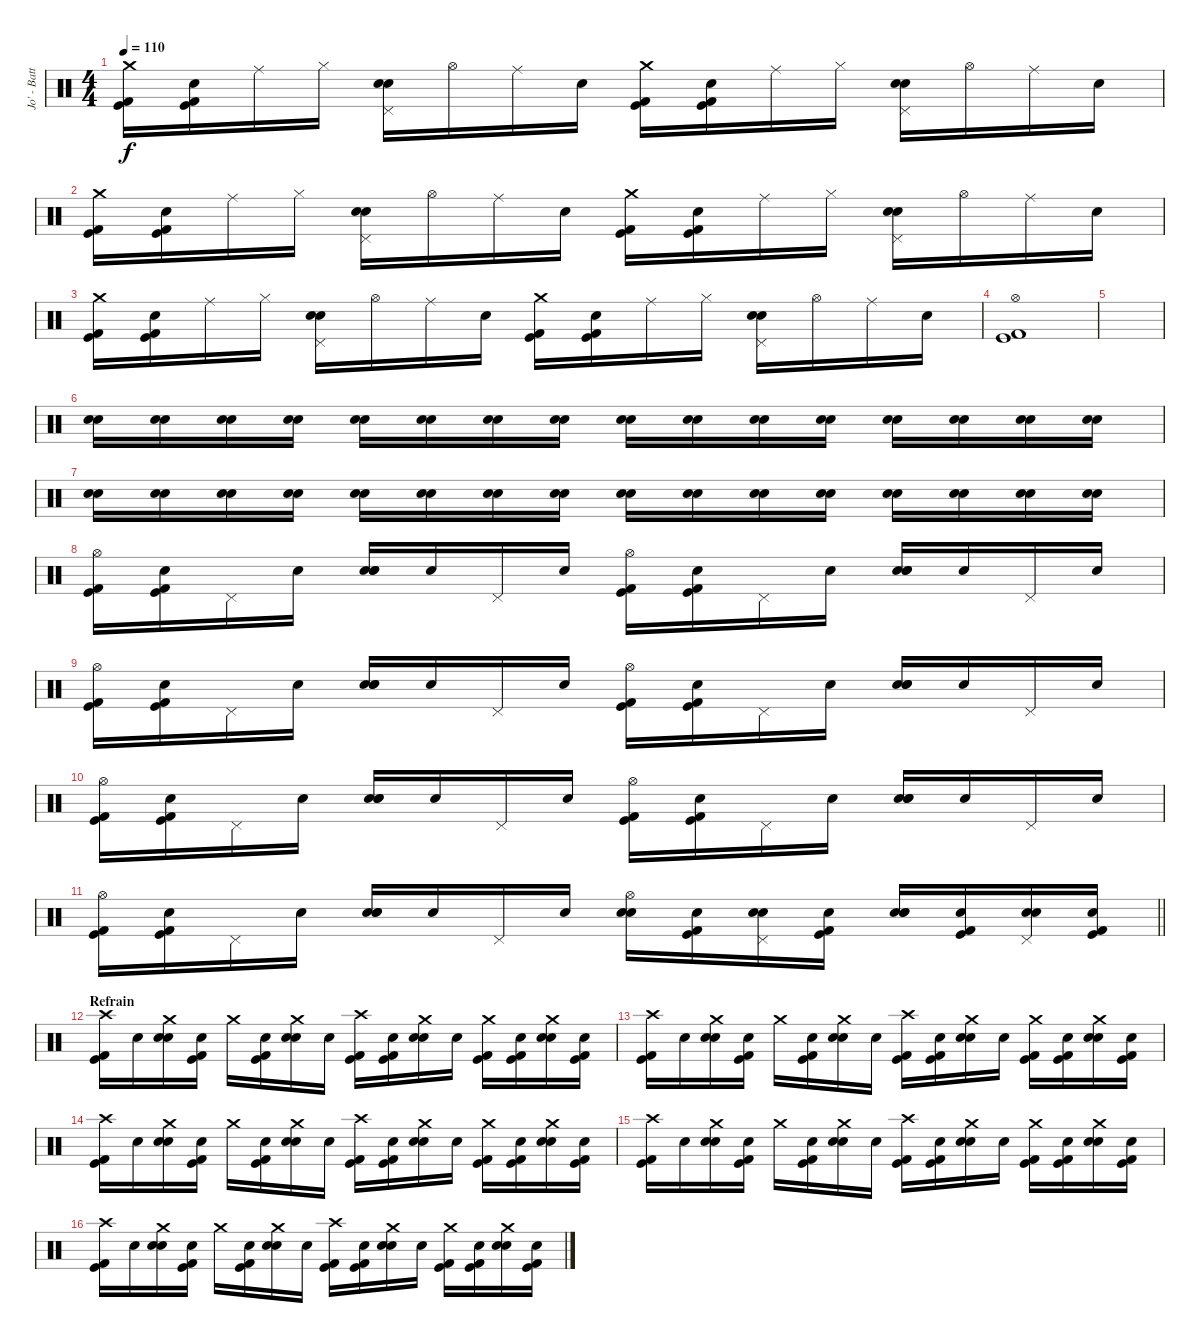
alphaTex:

\track ("Jo' - Batterie" "Jo' - Batt") {instrument percussion}
\staff {score}
\articulation defaults
\ts (4 4)
\tempo 110
\clef neutral
\ks c
("Crash medium (hit)" "Kick (hit)" "Kick (hit) 2").16{dy f} ("Snare (hit)" "Kick (hit)" "Kick (hit) 2").16 "Ride (middle)".16 "Hi-Hat (closed)".16 ("Pedal Hi-Hat (hit)" "Electric Snare (hit)" "Snare (hit) 2").16 "Hi-Hat (open)".16 "Ride (middle)".16 "Snare (hit)".16 ("Crash medium (hit)" "Kick (hit)" "Kick (hit) 2").16 ("Snare (hit)" "Kick (hit)" "Kick (hit) 2").16 "Ride (middle)".16 "Hi-Hat (closed)".16 ("Pedal Hi-Hat (hit)" "Electric Snare (hit)" "Snare (hit) 2").16 "Hi-Hat (open)".16 "Ride (middle)".16 "Snare (hit)".16 |
("Crash medium (hit)" "Kick (hit)" "Kick (hit) 2").16 ("Snare (hit)" "Kick (hit)" "Kick (hit) 2").16 "Ride (middle)".16 "Hi-Hat (closed)".16 ("Pedal Hi-Hat (hit)" "Electric Snare (hit)" "Snare (hit) 2").16 "Hi-Hat (open)".16 "Ride (middle)".16 "Snare (hit)".16 ("Crash medium (hit)" "Kick (hit)" "Kick (hit) 2").16 ("Snare (hit)" "Kick (hit)" "Kick (hit) 2").16 "Ride (middle)".16 "Hi-Hat (closed)".16 ("Pedal Hi-Hat (hit)" "Electric Snare (hit)" "Snare (hit) 2").16 "Hi-Hat (open)".16 "Ride (middle)".16 "Snare (hit)".16 |
("Crash medium (hit)" "Kick (hit)" "Kick (hit) 2").16 ("Snare (hit)" "Kick (hit)" "Kick (hit) 2").16 "Ride (middle)".16 "Hi-Hat (closed)".16 ("Pedal Hi-Hat (hit)" "Electric Snare (hit)" "Snare (hit) 2").16 "Hi-Hat (open)".16 "Ride (middle)".16 "Snare (hit)".16 ("Crash medium (hit)" "Kick (hit)" "Kick (hit) 2").16 ("Snare (hit)" "Kick (hit)" "Kick (hit) 2").16 "Ride (middle)".16 "Hi-Hat (closed)".16 ("Pedal Hi-Hat (hit)" "Electric Snare (hit)" "Snare (hit) 2").16 "Hi-Hat (open)".16 "Ride (middle)".16 "Snare (hit)".16 |
("Hi-Hat (open)" "Kick (hit)" "Kick (hit) 2").1 |
|
("Electric Snare (hit)" "Snare (hit) 2").16{volume 13} ("Electric Snare (hit)" "Snare (hit) 2").16 ("Electric Snare (hit)" "Snare (hit) 2").16 ("Electric Snare (hit)" "Snare (hit) 2").16 ("Electric Snare (hit)" "Snare (hit) 2").16 ("Electric Snare (hit)" "Snare (hit) 2").16 ("Electric Snare (hit)" "Snare (hit) 2").16 ("Electric Snare (hit)" "Snare (hit) 2").16 ("Electric Snare (hit)" "Snare (hit) 2").16 ("Electric Snare (hit)" "Snare (hit) 2").16 ("Electric Snare (hit)" "Snare (hit) 2").16 ("Electric Snare (hit)" "Snare (hit) 2").16 ("Electric Snare (hit)" "Snare (hit) 2").16 ("Electric Snare (hit)" "Snare (hit) 2").16 ("Electric Snare (hit)" "Snare (hit) 2").16 ("Electric Snare (hit)" "Snare (hit) 2").16 |
("Electric Snare (hit)" "Snare (hit) 2").16 ("Electric Snare (hit)" "Snare (hit) 2").16 ("Electric Snare (hit)" "Snare (hit) 2").16 ("Electric Snare (hit)" "Snare (hit) 2").16 ("Electric Snare (hit)" "Snare (hit) 2").16 ("Electric Snare (hit)" "Snare (hit) 2").16 ("Electric Snare (hit)" "Snare (hit) 2").16 ("Electric Snare (hit)" "Snare (hit) 2").16 ("Electric Snare (hit)" "Snare (hit) 2").16 ("Electric Snare (hit)" "Snare (hit) 2").16 ("Electric Snare (hit)" "Snare (hit) 2").16 ("Electric Snare (hit)" "Snare (hit) 2").16 ("Electric Snare (hit)" "Snare (hit) 2").16 ("Electric Snare (hit)" "Snare (hit) 2").16 ("Electric Snare (hit)" "Snare (hit) 2").16 ("Electric Snare (hit)" "Snare (hit) 2").16 |
("Hi-Hat (open)" "Kick (hit)" "Kick (hit) 2").16 ("Snare (hit)" "Kick (hit)" "Kick (hit) 2").16 "Pedal Hi-Hat (hit)".16 "Snare (hit)".16 ("Snare (hit)" "Electric Snare (hit)" "Snare (hit) 2").16 "Snare (hit)".16 "Pedal Hi-Hat (hit)".16 "Snare (hit)".16 ("Hi-Hat (open)" "Kick (hit)" "Kick (hit) 2").16 ("Snare (hit)" "Kick (hit)" "Kick (hit) 2").16 "Pedal Hi-Hat (hit)".16 "Snare (hit)".16 ("Snare (hit)" "Electric Snare (hit)" "Snare (hit) 2").16 "Snare (hit)".16 "Pedal Hi-Hat (hit)".16 "Snare (hit)".16 |
("Hi-Hat (open)" "Kick (hit)" "Kick (hit) 2").16 ("Snare (hit)" "Kick (hit)" "Kick (hit) 2").16 "Pedal Hi-Hat (hit)".16 "Snare (hit)".16 ("Snare (hit)" "Electric Snare (hit)" "Snare (hit) 2").16 "Snare (hit)".16 "Pedal Hi-Hat (hit)".16 "Snare (hit)".16 ("Hi-Hat (open)" "Kick (hit)" "Kick (hit) 2").16 ("Snare (hit)" "Kick (hit)" "Kick (hit) 2").16 "Pedal Hi-Hat (hit)".16 "Snare (hit)".16 ("Snare (hit)" "Electric Snare (hit)" "Snare (hit) 2").16 "Snare (hit)".16 "Pedal Hi-Hat (hit)".16 "Snare (hit)".16 |
("Hi-Hat (open)" "Kick (hit)" "Kick (hit) 2").16 ("Snare (hit)" "Kick (hit)" "Kick (hit) 2").16 "Pedal Hi-Hat (hit)".16 "Snare (hit)".16 ("Snare (hit)" "Electric Snare (hit)" "Snare (hit) 2").16 "Snare (hit)".16 "Pedal Hi-Hat (hit)".16 "Snare (hit)".16 ("Hi-Hat (open)" "Kick (hit)" "Kick (hit) 2").16 ("Snare (hit)" "Kick (hit)" "Kick (hit) 2").16 "Pedal Hi-Hat (hit)".16 "Snare (hit)".16 ("Snare (hit)" "Electric Snare (hit)" "Snare (hit) 2").16 "Snare (hit)".16 "Pedal Hi-Hat (hit)".16 "Snare (hit)".16 |
\barLineRight lightlight
("Hi-Hat (open)" "Kick (hit)" "Kick (hit) 2").16 ("Snare (hit)" "Kick (hit)" "Kick (hit) 2").16 "Pedal Hi-Hat (hit)".16 "Snare (hit)".16 ("Snare (hit)" "Electric Snare (hit)" "Snare (hit) 2").16 "Snare (hit)".16 "Pedal Hi-Hat (hit)".16 "Snare (hit)".16 ("Hi-Hat (open)" "Electric Snare (hit)" "Snare (hit) 2").16 ("Snare (hit)" "Kick (hit)" "Kick (hit) 2").16 ("Pedal Hi-Hat (hit)" "Electric Snare (hit)" "Snare (hit) 2").16 ("Snare (hit)" "Kick (hit)" "Kick (hit) 2").16 ("Snare (hit)" "Electric Snare (hit)" "Snare (hit) 2").16 ("Snare (hit)" "Kick (hit)" "Kick (hit) 2").16 ("Pedal Hi-Hat (hit)" "Electric Snare (hit)" "Snare (hit) 2").16 ("Snare (hit)" "Kick (hit)" "Kick (hit) 2").16 |
\section ("" "Refrain")
("Crash high (hit)" "Kick (hit)" "Kick (hit) 2").16 "Snare (hit)".16 ("Crash medium (hit)" "Electric Snare (hit)" "Snare (hit) 2").16 ("Snare (hit)" "Kick (hit)" "Kick (hit) 2").16 "Crash medium (hit)".16 ("Snare (hit)" "Kick (hit)" "Kick (hit) 2").16 ("Crash medium (hit)" "Electric Snare (hit)" "Snare (hit) 2").16 "Snare (hit)".16 ("Crash high (hit)" "Kick (hit)" "Kick (hit) 2").16 ("Snare (hit)" "Kick (hit)" "Kick (hit) 2").16 ("Crash medium (hit)" "Electric Snare (hit)" "Snare (hit) 2").16 "Snare (hit)".16 ("Crash medium (hit)" "Kick (hit)" "Kick (hit) 2").16 ("Snare (hit)" "Kick (hit)" "Kick (hit) 2").16 ("Crash medium (hit)" "Electric Snare (hit)" "Snare (hit) 2").16 ("Snare (hit)" "Kick (hit)" "Kick (hit) 2").16 |
("Crash high (hit)" "Kick (hit)" "Kick (hit) 2").16 "Snare (hit)".16 ("Crash medium (hit)" "Electric Snare (hit)" "Snare (hit) 2").16 ("Snare (hit)" "Kick (hit)" "Kick (hit) 2").16 "Crash medium (hit)".16 ("Snare (hit)" "Kick (hit)" "Kick (hit) 2").16 ("Crash medium (hit)" "Electric Snare (hit)" "Snare (hit) 2").16 "Snare (hit)".16 ("Crash high (hit)" "Kick (hit)" "Kick (hit) 2").16 ("Snare (hit)" "Kick (hit)" "Kick (hit) 2").16 ("Crash medium (hit)" "Electric Snare (hit)" "Snare (hit) 2").16 "Snare (hit)".16 ("Crash medium (hit)" "Kick (hit)" "Kick (hit) 2").16 ("Snare (hit)" "Kick (hit)" "Kick (hit) 2").16 ("Crash medium (hit)" "Electric Snare (hit)" "Snare (hit) 2").16 ("Snare (hit)" "Kick (hit)" "Kick (hit) 2").16 |
("Crash high (hit)" "Kick (hit)" "Kick (hit) 2").16 "Snare (hit)".16 ("Crash medium (hit)" "Electric Snare (hit)" "Snare (hit) 2").16 ("Snare (hit)" "Kick (hit)" "Kick (hit) 2").16 "Crash medium (hit)".16 ("Snare (hit)" "Kick (hit)" "Kick (hit) 2").16 ("Crash medium (hit)" "Electric Snare (hit)" "Snare (hit) 2").16 "Snare (hit)".16 ("Crash high (hit)" "Kick (hit)" "Kick (hit) 2").16 ("Snare (hit)" "Kick (hit)" "Kick (hit) 2").16 ("Crash medium (hit)" "Electric Snare (hit)" "Snare (hit) 2").16 "Snare (hit)".16 ("Crash medium (hit)" "Kick (hit)" "Kick (hit) 2").16 ("Snare (hit)" "Kick (hit)" "Kick (hit) 2").16 ("Crash medium (hit)" "Electric Snare (hit)" "Snare (hit) 2").16 ("Snare (hit)" "Kick (hit)" "Kick (hit) 2").16 |
("Crash high (hit)" "Kick (hit)" "Kick (hit) 2").16 "Snare (hit)".16 ("Crash medium (hit)" "Electric Snare (hit)" "Snare (hit) 2").16 ("Snare (hit)" "Kick (hit)" "Kick (hit) 2").16 "Crash medium (hit)".16 ("Snare (hit)" "Kick (hit)" "Kick (hit) 2").16 ("Crash medium (hit)" "Electric Snare (hit)" "Snare (hit) 2").16 "Snare (hit)".16 ("Crash high (hit)" "Kick (hit)" "Kick (hit) 2").16 ("Snare (hit)" "Kick (hit)" "Kick (hit) 2").16 ("Crash medium (hit)" "Electric Snare (hit)" "Snare (hit) 2").16 "Snare (hit)".16 ("Crash medium (hit)" "Kick (hit)" "Kick (hit) 2").16 ("Snare (hit)" "Kick (hit)" "Kick (hit) 2").16 ("Crash medium (hit)" "Electric Snare (hit)" "Snare (hit) 2").16 ("Snare (hit)" "Kick (hit)" "Kick (hit) 2").16 |
("Crash high (hit)" "Kick (hit)" "Kick (hit) 2").16 "Snare (hit)".16 ("Crash medium (hit)" "Electric Snare (hit)" "Snare (hit) 2").16 ("Snare (hit)" "Kick (hit)" "Kick (hit) 2").16 "Crash medium (hit)".16 ("Snare (hit)" "Kick (hit)" "Kick (hit) 2").16 ("Crash medium (hit)" "Electric Snare (hit)" "Snare (hit) 2").16 "Snare (hit)".16 ("Crash high (hit)" "Kick (hit)" "Kick (hit) 2").16 ("Snare (hit)" "Kick (hit)" "Kick (hit) 2").16 ("Crash medium (hit)" "Electric Snare (hit)" "Snare (hit) 2").16 "Snare (hit)".16 ("Crash medium (hit)" "Kick (hit)" "Kick (hit) 2").16 ("Snare (hit)" "Kick (hit)" "Kick (hit) 2").16 ("Crash medium (hit)" "Electric Snare (hit)" "Snare (hit) 2").16 ("Snare (hit)" "Kick (hit)" "Kick (hit) 2").16
